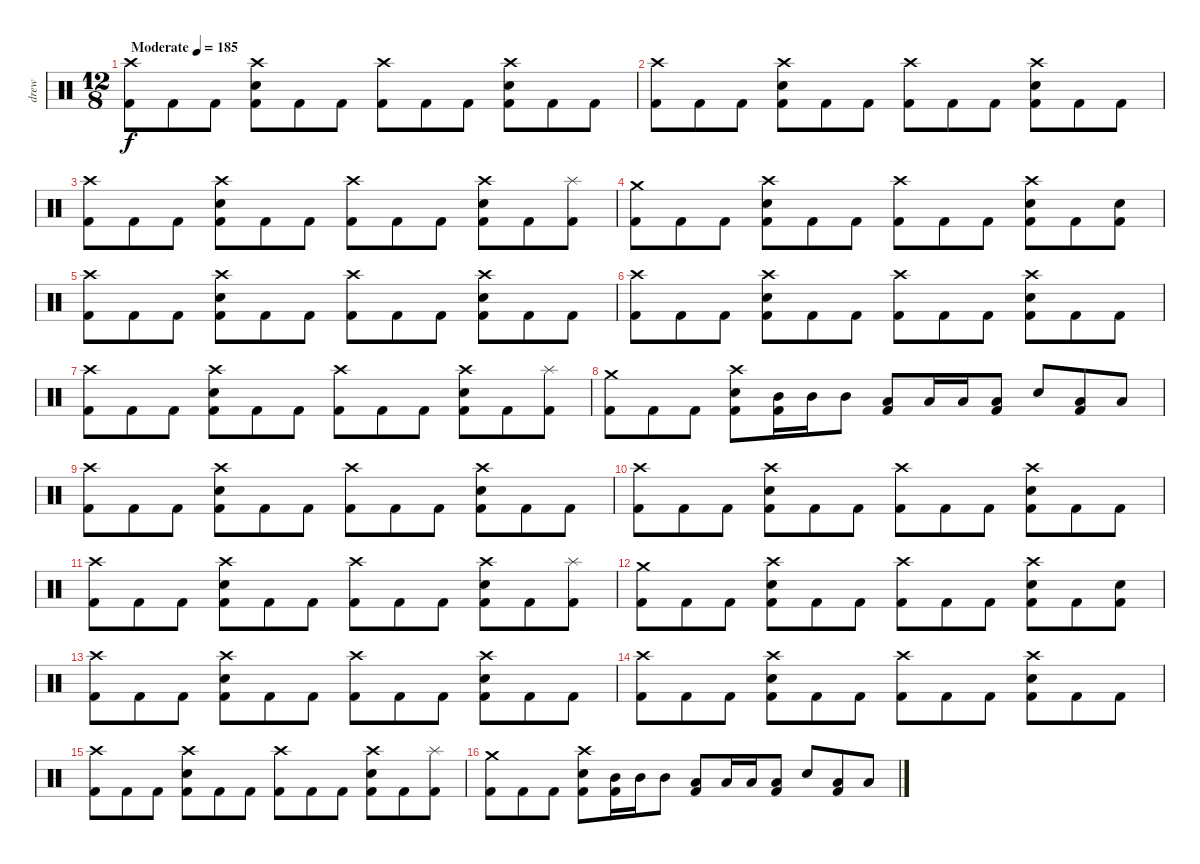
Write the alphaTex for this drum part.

\track ("drew" "drew") {instrument percussion}
\staff {score}
\articulation defaults
\ts (12 8)
\tempo (185 "Moderate")
\tempo 195
\tempo (185 "Moderate")
\clef neutral
\ks c
("Crash high (hit)" "Kick (hit) 2").8{dy f} "Kick (hit) 2".8 "Kick (hit) 2".8 ("Crash high (hit)" "Electric Snare (hit)" "Kick (hit) 2").8 "Kick (hit) 2".8 "Kick (hit) 2".8 ("Crash high (hit)" "Kick (hit) 2").8 "Kick (hit) 2".8 "Kick (hit) 2".8 ("Crash high (hit)" "Electric Snare (hit)" "Kick (hit) 2").8 "Kick (hit) 2".8 "Kick (hit) 2".8 |
("Crash high (hit)" "Kick (hit) 2").8 "Kick (hit) 2".8 "Kick (hit) 2".8 ("Crash high (hit)" "Electric Snare (hit)" "Kick (hit) 2").8 "Kick (hit) 2".8 "Kick (hit) 2".8 ("Crash high (hit)" "Kick (hit) 2").8 "Kick (hit) 2".8 "Kick (hit) 2".8 ("Crash high (hit)" "Electric Snare (hit)" "Kick (hit) 2").8 "Kick (hit) 2".8 "Kick (hit) 2".8 |
("Crash high (hit)" "Kick (hit) 2").8 "Kick (hit) 2".8 "Kick (hit) 2".8 ("Crash high (hit)" "Electric Snare (hit)" "Kick (hit) 2").8 "Kick (hit) 2".8 "Kick (hit) 2".8 ("Crash high (hit)" "Kick (hit) 2").8 "Kick (hit) 2".8 "Kick (hit) 2".8 ("Crash high (hit)" "Electric Snare (hit)" "Kick (hit) 2").8 "Kick (hit) 2".8 ("Splash (hit)" "Kick (hit) 2").8 |
("Crash medium (hit)" "Kick (hit) 2").8 "Kick (hit) 2".8 "Kick (hit) 2".8 ("Crash high (hit)" "Electric Snare (hit)" "Kick (hit) 2").8 "Kick (hit) 2".8 "Kick (hit) 2".8 ("Crash high (hit)" "Kick (hit) 2").8 "Kick (hit) 2".8 "Kick (hit) 2".8 ("Crash high (hit)" "Electric Snare (hit)" "Kick (hit) 2").8 "Kick (hit) 2".8 ("Electric Snare (hit)" "Kick (hit) 2").8 |
("Crash high (hit)" "Kick (hit) 2").8 "Kick (hit) 2".8 "Kick (hit) 2".8 ("Crash high (hit)" "Electric Snare (hit)" "Kick (hit) 2").8 "Kick (hit) 2".8 "Kick (hit) 2".8 ("Crash high (hit)" "Kick (hit) 2").8 "Kick (hit) 2".8 "Kick (hit) 2".8 ("Crash high (hit)" "Electric Snare (hit)" "Kick (hit) 2").8 "Kick (hit) 2".8 "Kick (hit) 2".8 |
("Crash high (hit)" "Kick (hit) 2").8 "Kick (hit) 2".8 "Kick (hit) 2".8 ("Crash high (hit)" "Electric Snare (hit)" "Kick (hit) 2").8 "Kick (hit) 2".8 "Kick (hit) 2".8 ("Crash high (hit)" "Kick (hit) 2").8 "Kick (hit) 2".8 "Kick (hit) 2".8 ("Crash high (hit)" "Electric Snare (hit)" "Kick (hit) 2").8 "Kick (hit) 2".8 "Kick (hit) 2".8 |
("Crash high (hit)" "Kick (hit) 2").8 "Kick (hit) 2".8 "Kick (hit) 2".8 ("Crash high (hit)" "Electric Snare (hit)" "Kick (hit) 2").8 "Kick (hit) 2".8 "Kick (hit) 2".8 ("Crash high (hit)" "Kick (hit) 2").8 "Kick (hit) 2".8 "Kick (hit) 2".8 ("Crash high (hit)" "Electric Snare (hit)" "Kick (hit) 2").8 "Kick (hit) 2".8 ("Splash (hit)" "Kick (hit) 2").8 |
("Crash medium (hit)" "Kick (hit) 2").8 "Kick (hit) 2".8 "Kick (hit) 2".8 ("Crash high (hit)" "Electric Snare (hit)" "Kick (hit) 2").8 ("Mid Tom (hit)" "Kick (hit) 2").16 "Mid Tom (hit)".16 "Mid Tom (hit)".8 ("Low Tom (hit)" "Kick (hit) 2").8 "Low Tom (hit)".16 "Low Tom (hit)".16 ("Low Tom (hit)" "Kick (hit) 2").8 "Electric Snare (hit)".8 ("Low Floor Tom (hit)" "Kick (hit) 2").8 "Low Floor Tom (hit)".8 |
("Crash high (hit)" "Kick (hit) 2").8 "Kick (hit) 2".8 "Kick (hit) 2".8 ("Crash high (hit)" "Electric Snare (hit)" "Kick (hit) 2").8 "Kick (hit) 2".8 "Kick (hit) 2".8 ("Crash high (hit)" "Kick (hit) 2").8 "Kick (hit) 2".8 "Kick (hit) 2".8 ("Crash high (hit)" "Electric Snare (hit)" "Kick (hit) 2").8 "Kick (hit) 2".8 "Kick (hit) 2".8 |
("Crash high (hit)" "Kick (hit) 2").8 "Kick (hit) 2".8 "Kick (hit) 2".8 ("Crash high (hit)" "Electric Snare (hit)" "Kick (hit) 2").8 "Kick (hit) 2".8 "Kick (hit) 2".8 ("Crash high (hit)" "Kick (hit) 2").8 "Kick (hit) 2".8 "Kick (hit) 2".8 ("Crash high (hit)" "Electric Snare (hit)" "Kick (hit) 2").8 "Kick (hit) 2".8 "Kick (hit) 2".8 |
("Crash high (hit)" "Kick (hit) 2").8 "Kick (hit) 2".8 "Kick (hit) 2".8 ("Crash high (hit)" "Electric Snare (hit)" "Kick (hit) 2").8 "Kick (hit) 2".8 "Kick (hit) 2".8 ("Crash high (hit)" "Kick (hit) 2").8 "Kick (hit) 2".8 "Kick (hit) 2".8 ("Crash high (hit)" "Electric Snare (hit)" "Kick (hit) 2").8 "Kick (hit) 2".8 ("Splash (hit)" "Kick (hit) 2").8 |
("Crash medium (hit)" "Kick (hit) 2").8 "Kick (hit) 2".8 "Kick (hit) 2".8 ("Crash high (hit)" "Electric Snare (hit)" "Kick (hit) 2").8 "Kick (hit) 2".8 "Kick (hit) 2".8 ("Crash high (hit)" "Kick (hit) 2").8 "Kick (hit) 2".8 "Kick (hit) 2".8 ("Crash high (hit)" "Electric Snare (hit)" "Kick (hit) 2").8 "Kick (hit) 2".8 ("Electric Snare (hit)" "Kick (hit) 2").8 |
("Crash high (hit)" "Kick (hit) 2").8 "Kick (hit) 2".8 "Kick (hit) 2".8 ("Crash high (hit)" "Electric Snare (hit)" "Kick (hit) 2").8 "Kick (hit) 2".8 "Kick (hit) 2".8 ("Crash high (hit)" "Kick (hit) 2").8 "Kick (hit) 2".8 "Kick (hit) 2".8 ("Crash high (hit)" "Electric Snare (hit)" "Kick (hit) 2").8 "Kick (hit) 2".8 "Kick (hit) 2".8 |
("Crash high (hit)" "Kick (hit) 2").8 "Kick (hit) 2".8 "Kick (hit) 2".8 ("Crash high (hit)" "Electric Snare (hit)" "Kick (hit) 2").8 "Kick (hit) 2".8 "Kick (hit) 2".8 ("Crash high (hit)" "Kick (hit) 2").8 "Kick (hit) 2".8 "Kick (hit) 2".8 ("Crash high (hit)" "Electric Snare (hit)" "Kick (hit) 2").8 "Kick (hit) 2".8 "Kick (hit) 2".8 |
("Crash high (hit)" "Kick (hit) 2").8 "Kick (hit) 2".8 "Kick (hit) 2".8 ("Crash high (hit)" "Electric Snare (hit)" "Kick (hit) 2").8 "Kick (hit) 2".8 "Kick (hit) 2".8 ("Crash high (hit)" "Kick (hit) 2").8 "Kick (hit) 2".8 "Kick (hit) 2".8 ("Crash high (hit)" "Electric Snare (hit)" "Kick (hit) 2").8 "Kick (hit) 2".8 ("Splash (hit)" "Kick (hit) 2").8 |
("Crash medium (hit)" "Kick (hit) 2").8 "Kick (hit) 2".8 "Kick (hit) 2".8 ("Crash high (hit)" "Electric Snare (hit)" "Kick (hit) 2").8 ("Mid Tom (hit)" "Kick (hit) 2").16 "Mid Tom (hit)".16 "Mid Tom (hit)".8 ("Low Tom (hit)" "Kick (hit) 2").8 "Low Tom (hit)".16 "Low Tom (hit)".16 ("Low Tom (hit)" "Kick (hit) 2").8 "Electric Snare (hit)".8 ("Low Floor Tom (hit)" "Kick (hit) 2").8 "Low Floor Tom (hit)".8
